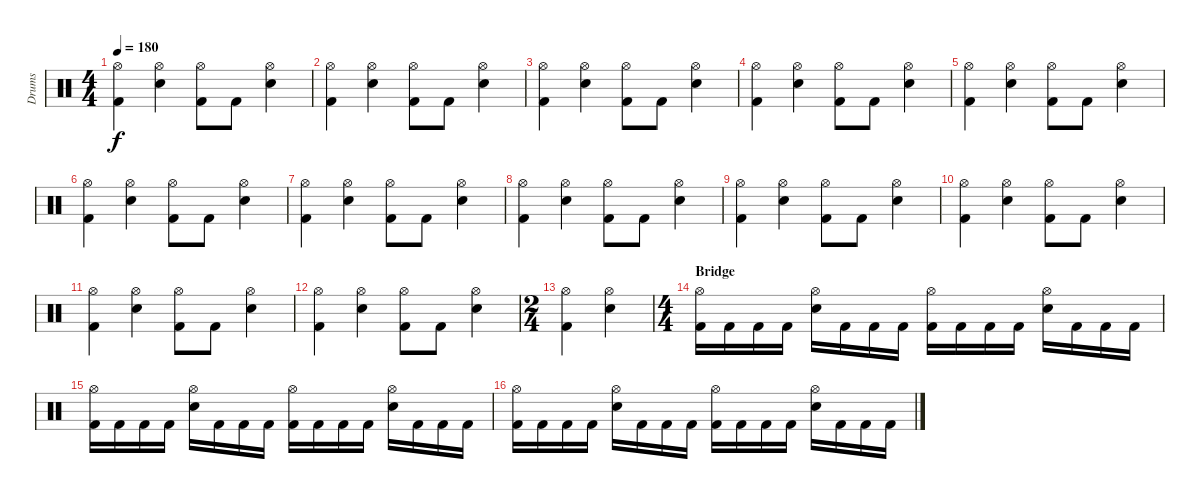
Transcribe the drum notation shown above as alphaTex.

\track ("Drums" "Drums") {instrument percussion}
\staff {score}
\articulation defaults
\ts (4 4)
\tempo 180
\clef neutral
\ks c
("Hi-Hat (open)" "Kick (hit) 2").4{dy f} ("Hi-Hat (open)" "Snare (hit) 2").4 ("Hi-Hat (open)" "Kick (hit) 2").8 "Kick (hit) 2".8 ("Hi-Hat (open)" "Snare (hit) 2").4 |
("Hi-Hat (open)" "Kick (hit) 2").4 ("Hi-Hat (open)" "Snare (hit) 2").4 ("Hi-Hat (open)" "Kick (hit) 2").8 "Kick (hit) 2".8 ("Hi-Hat (open)" "Snare (hit) 2").4 |
("Hi-Hat (open)" "Kick (hit) 2").4 ("Hi-Hat (open)" "Snare (hit) 2").4 ("Hi-Hat (open)" "Kick (hit) 2").8 "Kick (hit) 2".8 ("Hi-Hat (open)" "Snare (hit) 2").4 |
("Hi-Hat (open)" "Kick (hit) 2").4 ("Hi-Hat (open)" "Snare (hit) 2").4 ("Hi-Hat (open)" "Kick (hit) 2").8 "Kick (hit) 2".8 ("Hi-Hat (open)" "Snare (hit) 2").4 |
("Hi-Hat (open)" "Kick (hit) 2").4 ("Hi-Hat (open)" "Snare (hit) 2").4 ("Hi-Hat (open)" "Kick (hit) 2").8 "Kick (hit) 2".8 ("Hi-Hat (open)" "Snare (hit) 2").4 |
("Hi-Hat (open)" "Kick (hit) 2").4 ("Hi-Hat (open)" "Snare (hit) 2").4 ("Hi-Hat (open)" "Kick (hit) 2").8 "Kick (hit) 2".8 ("Hi-Hat (open)" "Snare (hit) 2").4 |
("Hi-Hat (open)" "Kick (hit) 2").4 ("Hi-Hat (open)" "Snare (hit) 2").4 ("Hi-Hat (open)" "Kick (hit) 2").8 "Kick (hit) 2".8 ("Hi-Hat (open)" "Snare (hit) 2").4 |
("Hi-Hat (open)" "Kick (hit) 2").4 ("Hi-Hat (open)" "Snare (hit) 2").4 ("Hi-Hat (open)" "Kick (hit) 2").8 "Kick (hit) 2".8 ("Hi-Hat (open)" "Snare (hit) 2").4 |
("Hi-Hat (open)" "Kick (hit) 2").4 ("Hi-Hat (open)" "Snare (hit) 2").4 ("Hi-Hat (open)" "Kick (hit) 2").8 "Kick (hit) 2".8 ("Hi-Hat (open)" "Snare (hit) 2").4 |
("Hi-Hat (open)" "Kick (hit) 2").4 ("Hi-Hat (open)" "Snare (hit) 2").4 ("Hi-Hat (open)" "Kick (hit) 2").8 "Kick (hit) 2".8 ("Hi-Hat (open)" "Snare (hit) 2").4 |
("Hi-Hat (open)" "Kick (hit) 2").4 ("Hi-Hat (open)" "Snare (hit) 2").4 ("Hi-Hat (open)" "Kick (hit) 2").8 "Kick (hit) 2".8 ("Hi-Hat (open)" "Snare (hit) 2").4 |
("Hi-Hat (open)" "Kick (hit) 2").4 ("Hi-Hat (open)" "Snare (hit) 2").4 ("Hi-Hat (open)" "Kick (hit) 2").8 "Kick (hit) 2".8 ("Hi-Hat (open)" "Snare (hit) 2").4 |
\ts (2 4)
("Hi-Hat (open)" "Kick (hit) 2").4 ("Hi-Hat (open)" "Snare (hit) 2").4 |
\ts (4 4)
\section ("" "Bridge")
("Hi-Hat (open)" "Kick (hit) 2").16 "Kick (hit) 2".16 "Kick (hit) 2".16 "Kick (hit) 2".16 ("Hi-Hat (open)" "Snare (hit) 2").16 "Kick (hit) 2".16 "Kick (hit) 2".16 "Kick (hit) 2".16 ("Hi-Hat (open)" "Kick (hit) 2").16 "Kick (hit) 2".16 "Kick (hit) 2".16 "Kick (hit) 2".16 ("Hi-Hat (open)" "Snare (hit) 2").16 "Kick (hit) 2".16 "Kick (hit) 2".16 "Kick (hit) 2".16 |
("Hi-Hat (open)" "Kick (hit) 2").16 "Kick (hit) 2".16 "Kick (hit) 2".16 "Kick (hit) 2".16 ("Hi-Hat (open)" "Snare (hit) 2").16 "Kick (hit) 2".16 "Kick (hit) 2".16 "Kick (hit) 2".16 ("Hi-Hat (open)" "Kick (hit) 2").16 "Kick (hit) 2".16 "Kick (hit) 2".16 "Kick (hit) 2".16 ("Hi-Hat (open)" "Snare (hit) 2").16 "Kick (hit) 2".16 "Kick (hit) 2".16 "Kick (hit) 2".16 |
("Hi-Hat (open)" "Kick (hit) 2").16 "Kick (hit) 2".16 "Kick (hit) 2".16 "Kick (hit) 2".16 ("Hi-Hat (open)" "Snare (hit) 2").16 "Kick (hit) 2".16 "Kick (hit) 2".16 "Kick (hit) 2".16 ("Hi-Hat (open)" "Kick (hit) 2").16 "Kick (hit) 2".16 "Kick (hit) 2".16 "Kick (hit) 2".16 ("Hi-Hat (open)" "Snare (hit) 2").16 "Kick (hit) 2".16 "Kick (hit) 2".16 "Kick (hit) 2".16
